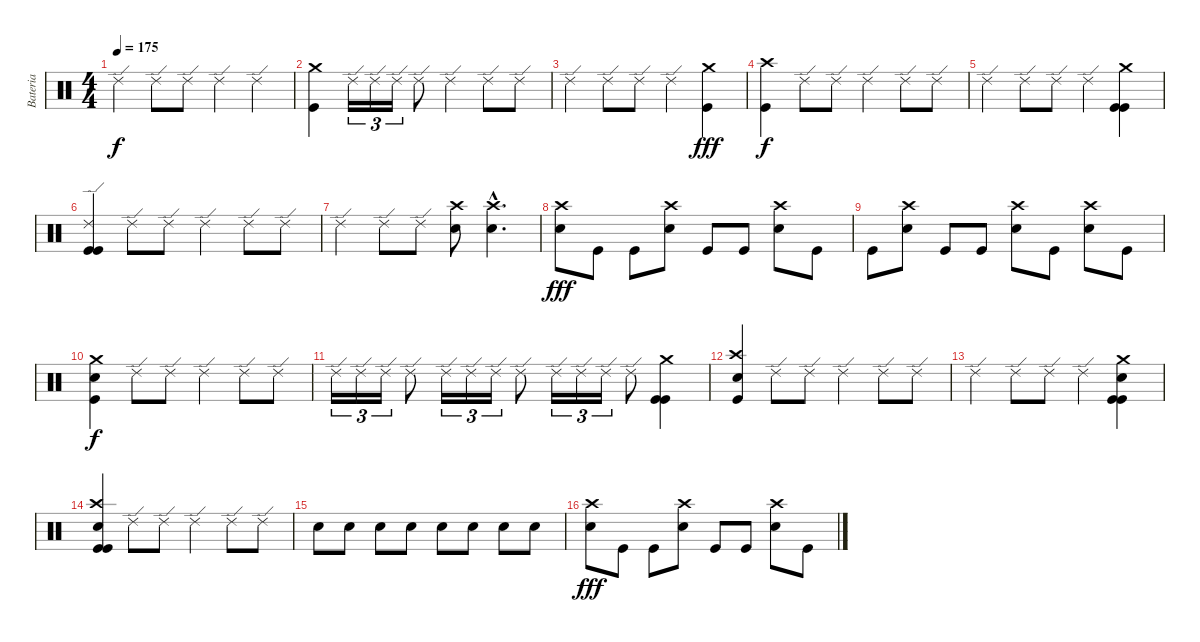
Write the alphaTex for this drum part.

\track ("Bateria" "Bateria") {instrument percussion}
\staff {score}
\articulation defaults
\ts (4 4)
\tempo 175
\clef neutral
\ks c "Ride (edge) 2".4{dy f} "Ride (edge) 2".8 "Ride (edge) 2".8 "Ride (edge) 2".4 "Ride (edge) 2".4
|
("Crash medium (hit)" "Kick (hit)").4 "Ride (edge) 2".16{tu (3 2)} "Ride (edge) 2".16{tu (3 2)} "Ride (edge) 2".16{tu (3 2)} "Ride (edge) 2".8 "Ride (edge) 2".4 "Ride (edge) 2".8 "Ride (edge) 2".8 |
"Ride (edge) 2".4 "Ride (edge) 2".8 "Ride (edge) 2".8 "Ride (edge) 2".4 ("Crash medium (hit)" "Kick (hit)").4{dy fff} |
("Crash high (hit)" "Kick (hit)").4{dy f} "Ride (edge) 2".8 "Ride (edge) 2".8 "Ride (edge) 2".4 "Ride (edge) 2".8 "Ride (edge) 2".8 |
"Ride (edge) 2".4 "Ride (edge) 2".8 "Ride (edge) 2".8 "Ride (edge) 2".4 ("Crash medium (hit)" "Kick (hit)" "Kick (hit)").4 |
("Ride (edge) 2" "Kick (hit)" "Kick (hit)").4 "Ride (edge) 2".8 "Ride (edge) 2".8 "Ride (edge) 2".4 "Ride (edge) 2".8 "Ride (edge) 2".8 |
"Ride (edge) 2".4 "Ride (edge) 2".8 "Ride (edge) 2".8 ("Crash high (hit)" "Electric Snare (hit)").8 ("Crash high (hit)"{hac} "Electric Snare (hit)"{hac}).4{d} |
("Crash high (hit)" "Electric Snare (hit)").8{dy fff} "Kick (hit)".8 "Kick (hit)".8 ("Crash high (hit)" "Electric Snare (hit)").8 "Kick (hit)".8 "Kick (hit)".8 ("Crash high (hit)" "Electric Snare (hit)").8 "Kick (hit)".8 |
"Kick (hit)".8 ("Crash high (hit)" "Electric Snare (hit)").8 "Kick (hit)".8 "Kick (hit)".8 ("Crash high (hit)" "Electric Snare (hit)").8 "Kick (hit)".8 ("Crash high (hit)" "Electric Snare (hit)").8 "Kick (hit)".8 |
("Crash medium (hit)" "Electric Snare (hit)" "Kick (hit)").4{dy f} "Ride (edge) 2".8 "Ride (edge) 2".8 "Ride (edge) 2".4 "Ride (edge) 2".8 "Ride (edge) 2".8 |
"Ride (edge) 2".16{tu (3 2)} "Ride (edge) 2".16{tu (3 2)} "Ride (edge) 2".16{tu (3 2)} "Ride (edge) 2".8 "Ride (edge) 2".16{tu (3 2)} "Ride (edge) 2".16{tu (3 2)} "Ride (edge) 2".16{tu (3 2)} "Ride (edge) 2".8 "Ride (edge) 2".16{tu (3 2)} "Ride (edge) 2".16{tu (3 2)} "Ride (edge) 2".16{tu (3 2)} "Ride (edge) 2".8 ("Crash medium (hit)" "Kick (hit)" "Kick (hit)").4 |
("Crash high (hit)" "Electric Snare (hit)" "Kick (hit)").4 "Ride (edge) 2".8 "Ride (edge) 2".8 "Ride (edge) 2".4 "Ride (edge) 2".8 "Ride (edge) 2".8 |
"Ride (edge) 2".4 "Ride (edge) 2".8 "Ride (edge) 2".8 "Ride (edge) 2".4 ("Crash medium (hit)" "Electric Snare (hit)" "Kick (hit)" "Kick (hit)").4 |
("Crash high (hit)" "Electric Snare (hit)" "Kick (hit)" "Kick (hit)").4 "Ride (edge) 2".8 "Ride (edge) 2".8 "Ride (edge) 2".4 "Ride (edge) 2".8 "Ride (edge) 2".8 |
"Electric Snare (hit)".8 "Electric Snare (hit)".8 "Electric Snare (hit)".8 "Electric Snare (hit)".8 "Electric Snare (hit)".8 "Electric Snare (hit)".8 "Electric Snare (hit)".8 "Electric Snare (hit)".8 |
("Crash high (hit)" "Electric Snare (hit)").8{dy fff} "Kick (hit)".8 "Kick (hit)".8 ("Crash high (hit)" "Electric Snare (hit)").8 "Kick (hit)".8 "Kick (hit)".8 ("Crash high (hit)" "Electric Snare (hit)").8 "Kick (hit)".8
